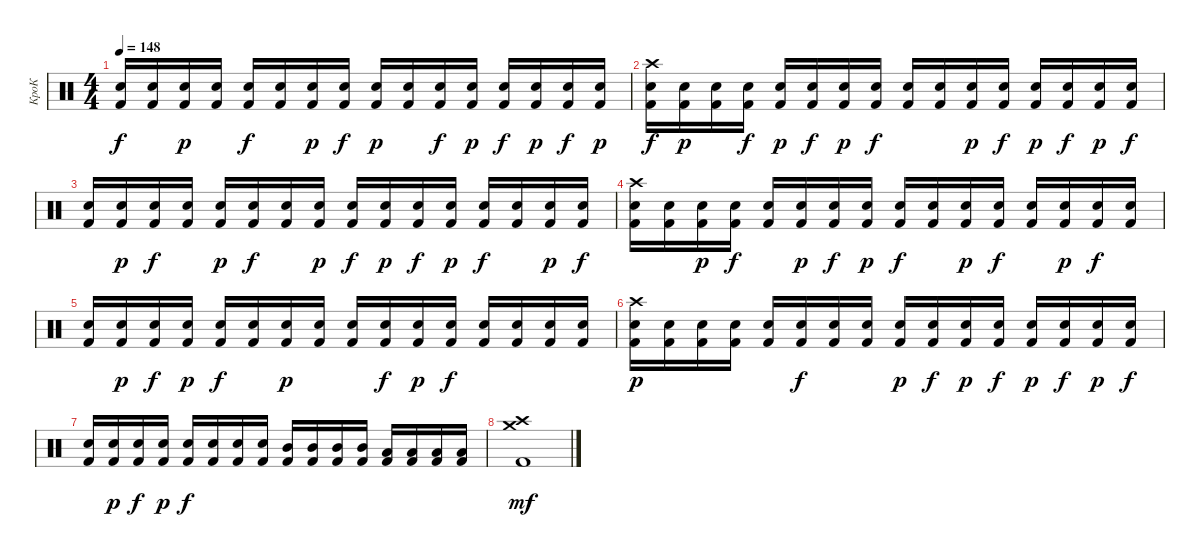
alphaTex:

\track ("КроК" "КроК") {instrument percussion}
\staff {score}
\articulation defaults
\ts (4 4)
\tempo 148
\clef neutral
\ks c
("Electric Snare (hit)" "Kick (hit) 2").16{dy f} ("Electric Snare (hit)" "Kick (hit) 2").16 ("Electric Snare (hit)" "Kick (hit) 2").16{dy p} ("Electric Snare (hit)" "Kick (hit) 2").16 ("Electric Snare (hit)" "Kick (hit) 2").16{dy f} ("Electric Snare (hit)" "Kick (hit) 2").16 ("Electric Snare (hit)" "Kick (hit) 2").16{dy p} ("Electric Snare (hit)" "Kick (hit) 2").16{dy f} ("Electric Snare (hit)" "Kick (hit) 2").16{dy p} ("Electric Snare (hit)" "Kick (hit) 2").16 ("Electric Snare (hit)" "Kick (hit) 2").16{dy f} ("Electric Snare (hit)" "Kick (hit) 2").16{dy p} ("Electric Snare (hit)" "Kick (hit) 2").16{dy f} ("Electric Snare (hit)" "Kick (hit) 2").16{dy p} ("Electric Snare (hit)" "Kick (hit) 2").16{dy f} ("Electric Snare (hit)" "Kick (hit) 2").16{dy p} |
("Electric Snare (hit)" "Kick (hit) 2" "Crash high (hit)").16{dy f} ("Electric Snare (hit)" "Kick (hit) 2").16{dy p} ("Electric Snare (hit)" "Kick (hit) 2").16 ("Electric Snare (hit)" "Kick (hit) 2").16{dy f} ("Electric Snare (hit)" "Kick (hit) 2").16{dy p} ("Electric Snare (hit)" "Kick (hit) 2").16{dy f} ("Electric Snare (hit)" "Kick (hit) 2").16{dy p} ("Electric Snare (hit)" "Kick (hit) 2").16{dy f} ("Electric Snare (hit)" "Kick (hit) 2").16 ("Electric Snare (hit)" "Kick (hit) 2").16 ("Electric Snare (hit)" "Kick (hit) 2").16{dy p} ("Electric Snare (hit)" "Kick (hit) 2").16{dy f} ("Electric Snare (hit)" "Kick (hit) 2").16{dy p} ("Electric Snare (hit)" "Kick (hit) 2").16{dy f} ("Electric Snare (hit)" "Kick (hit) 2").16{dy p} ("Electric Snare (hit)" "Kick (hit) 2").16{dy f} |
("Electric Snare (hit)" "Kick (hit) 2").16 ("Electric Snare (hit)" "Kick (hit) 2").16{dy p} ("Electric Snare (hit)" "Kick (hit) 2").16{dy f} ("Electric Snare (hit)" "Kick (hit) 2").16 ("Electric Snare (hit)" "Kick (hit) 2").16{dy p} ("Electric Snare (hit)" "Kick (hit) 2").16{dy f} ("Electric Snare (hit)" "Kick (hit) 2").16 ("Electric Snare (hit)" "Kick (hit) 2").16{dy p} ("Electric Snare (hit)" "Kick (hit) 2").16{dy f} ("Electric Snare (hit)" "Kick (hit) 2").16{dy p} ("Electric Snare (hit)" "Kick (hit) 2").16{dy f} ("Electric Snare (hit)" "Kick (hit) 2").16{dy p} ("Electric Snare (hit)" "Kick (hit) 2").16{dy f} ("Electric Snare (hit)" "Kick (hit) 2").16 ("Electric Snare (hit)" "Kick (hit) 2").16{dy p} ("Electric Snare (hit)" "Kick (hit) 2").16{dy f} |
("Electric Snare (hit)" "Kick (hit) 2" "Crash high (hit)").16 ("Electric Snare (hit)" "Kick (hit) 2").16 ("Electric Snare (hit)" "Kick (hit) 2").16{dy p} ("Electric Snare (hit)" "Kick (hit) 2").16{dy f} ("Electric Snare (hit)" "Kick (hit) 2").16 ("Electric Snare (hit)" "Kick (hit) 2").16{dy p} ("Electric Snare (hit)" "Kick (hit) 2").16{dy f} ("Electric Snare (hit)" "Kick (hit) 2").16{dy p} ("Electric Snare (hit)" "Kick (hit) 2").16{dy f} ("Electric Snare (hit)" "Kick (hit) 2").16 ("Electric Snare (hit)" "Kick (hit) 2").16{dy p} ("Electric Snare (hit)" "Kick (hit) 2").16{dy f} ("Electric Snare (hit)" "Kick (hit) 2").16 ("Electric Snare (hit)" "Kick (hit) 2").16{dy p} ("Electric Snare (hit)" "Kick (hit) 2").16{dy f} ("Electric Snare (hit)" "Kick (hit) 2").16 |
("Electric Snare (hit)" "Kick (hit) 2").16 ("Electric Snare (hit)" "Kick (hit) 2").16{dy p} ("Electric Snare (hit)" "Kick (hit) 2").16{dy f} ("Electric Snare (hit)" "Kick (hit) 2").16{dy p} ("Electric Snare (hit)" "Kick (hit) 2").16{dy f} ("Electric Snare (hit)" "Kick (hit) 2").16 ("Electric Snare (hit)" "Kick (hit) 2").16{dy p} ("Electric Snare (hit)" "Kick (hit) 2").16 ("Electric Snare (hit)" "Kick (hit) 2").16 ("Electric Snare (hit)" "Kick (hit) 2").16{dy f} ("Electric Snare (hit)" "Kick (hit) 2").16{dy p} ("Electric Snare (hit)" "Kick (hit) 2").16{dy f} ("Electric Snare (hit)" "Kick (hit) 2").16 ("Electric Snare (hit)" "Kick (hit) 2").16 ("Electric Snare (hit)" "Kick (hit) 2").16 ("Electric Snare (hit)" "Kick (hit) 2").16 |
("Electric Snare (hit)" "Kick (hit) 2" "Crash high (hit)").16{dy p} ("Electric Snare (hit)" "Kick (hit) 2").16 ("Electric Snare (hit)" "Kick (hit) 2").16 ("Electric Snare (hit)" "Kick (hit) 2").16 ("Electric Snare (hit)" "Kick (hit) 2").16 ("Electric Snare (hit)" "Kick (hit) 2").16{dy f} ("Electric Snare (hit)" "Kick (hit) 2").16 ("Electric Snare (hit)" "Kick (hit) 2").16 ("Electric Snare (hit)" "Kick (hit) 2").16{dy p} ("Electric Snare (hit)" "Kick (hit) 2").16{dy f} ("Electric Snare (hit)" "Kick (hit) 2").16{dy p} ("Electric Snare (hit)" "Kick (hit) 2").16{dy f} ("Electric Snare (hit)" "Kick (hit) 2").16{dy p} ("Electric Snare (hit)" "Kick (hit) 2").16{dy f} ("Electric Snare (hit)" "Kick (hit) 2").16{dy p} ("Electric Snare (hit)" "Kick (hit) 2").16{dy f} |
("Electric Snare (hit)" "Kick (hit) 2").16 ("Electric Snare (hit)" "Kick (hit) 2").16{dy p} ("Electric Snare (hit)" "Kick (hit) 2").16{dy f} ("Electric Snare (hit)" "Kick (hit) 2").16{dy p} ("Electric Snare (hit)" "Kick (hit) 2").16{dy f} ("Electric Snare (hit)" "Kick (hit) 2").16 ("Electric Snare (hit)" "Kick (hit) 2").16 ("Electric Snare (hit)" "Kick (hit) 2").16 ("Mid Tom (hit)" "Kick (hit) 2").16 ("Mid Tom (hit)" "Kick (hit) 2").16 ("Mid Tom (hit)" "Kick (hit) 2").16 ("Mid Tom (hit)" "Kick (hit) 2").16 ("Low Tom (hit)" "Kick (hit) 2").16 ("Low Tom (hit)" "Kick (hit) 2").16 ("Low Tom (hit)" "Kick (hit) 2").16 ("Low Tom (hit)" "Kick (hit) 2").16 |
("Crash medium (hit)" "Crash high (hit)" "Kick (hit) 2").1{dy mf}
